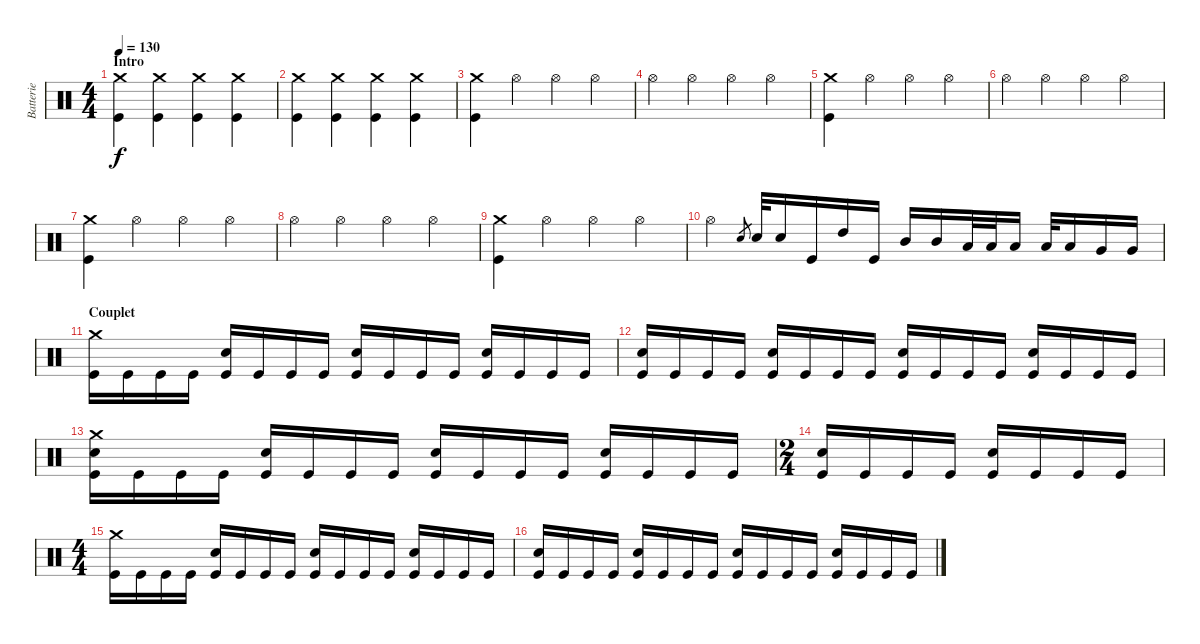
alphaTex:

\track ("Batterie" "Batterie") {instrument percussion}
\staff {score}
\articulation defaults
\ts (4 4)
\section ("" "Intro")
\tempo 130
\clef neutral
\ks c
("Crash medium (hit)" "Kick (hit)").4{dy f} ("Crash medium (hit)" "Kick (hit)").4 ("Crash medium (hit)" "Kick (hit)").4 ("Crash medium (hit)" "Kick (hit)").4 |
("Crash medium (hit)" "Kick (hit)").4 ("Crash medium (hit)" "Kick (hit)").4 ("Crash medium (hit)" "Kick (hit)").4 ("Crash medium (hit)" "Kick (hit)").4 |
("Crash medium (hit)" "Kick (hit)").4 "Hi-Hat (open)".4 "Hi-Hat (open)".4 "Hi-Hat (open)".4 |
"Hi-Hat (open)".4 "Hi-Hat (open)".4 "Hi-Hat (open)".4 "Hi-Hat (open)".4 |
("Crash medium (hit)" "Kick (hit)").4 "Hi-Hat (open)".4 "Hi-Hat (open)".4 "Hi-Hat (open)".4 |
"Hi-Hat (open)".4 "Hi-Hat (open)".4 "Hi-Hat (open)".4 "Hi-Hat (open)".4 |
("Crash medium (hit)" "Kick (hit)").4 "Hi-Hat (open)".4 "Hi-Hat (open)".4 "Hi-Hat (open)".4 |
"Hi-Hat (open)".4 "Hi-Hat (open)".4 "Hi-Hat (open)".4 "Hi-Hat (open)".4 |
("Crash medium (hit)" "Kick (hit)").4 "Hi-Hat (open)".4 "Hi-Hat (open)".4 "Hi-Hat (open)".4 |
"Hi-Hat (open)".4 "Electric Snare (hit)".8{gr} "Electric Snare (hit)".32 "Electric Snare (hit)".16 "Kick (hit)".16 "High Tom (hit)".16 "Kick (hit)".16 "Mid Tom (hit)".16 "Mid Tom (hit)".16 "Low Tom (hit)".32 "Low Tom (hit)".32 "Low Tom (hit)".16 "Low Tom (hit)".32 "Low Tom (hit)".16 "Very Low Tom (hit)".16 "Very Low Tom (hit)".16 |
\section ("" "Couplet")
("Crash medium (hit)" "Kick (hit)").16 "Kick (hit)".16 "Kick (hit)".16 "Kick (hit)".16 ("Electric Snare (hit)" "Kick (hit)").16 "Kick (hit)".16 "Kick (hit)".16 "Kick (hit)".16 ("Electric Snare (hit)" "Kick (hit)").16 "Kick (hit)".16 "Kick (hit)".16 "Kick (hit)".16 ("Electric Snare (hit)" "Kick (hit)").16 "Kick (hit)".16 "Kick (hit)".16 "Kick (hit)".16 |
("Electric Snare (hit)" "Kick (hit)").16 "Kick (hit)".16 "Kick (hit)".16 "Kick (hit)".16 ("Electric Snare (hit)" "Kick (hit)").16 "Kick (hit)".16 "Kick (hit)".16 "Kick (hit)".16 ("Electric Snare (hit)" "Kick (hit)").16 "Kick (hit)".16 "Kick (hit)".16 "Kick (hit)".16 ("Electric Snare (hit)" "Kick (hit)").16 "Kick (hit)".16 "Kick (hit)".16 "Kick (hit)".16 |
("Crash medium (hit)" "Electric Snare (hit)" "Kick (hit)").16 "Kick (hit)".16 "Kick (hit)".16 "Kick (hit)".16 ("Electric Snare (hit)" "Kick (hit)").16 "Kick (hit)".16 "Kick (hit)".16 "Kick (hit)".16 ("Electric Snare (hit)" "Kick (hit)").16 "Kick (hit)".16 "Kick (hit)".16 "Kick (hit)".16 ("Electric Snare (hit)" "Kick (hit)").16 "Kick (hit)".16 "Kick (hit)".16 "Kick (hit)".16 |
\ts (2 4)
("Electric Snare (hit)" "Kick (hit)").16 "Kick (hit)".16 "Kick (hit)".16 "Kick (hit)".16 ("Electric Snare (hit)" "Kick (hit)").16 "Kick (hit)".16 "Kick (hit)".16 "Kick (hit)".16 |
\ts (4 4)
("Crash medium (hit)" "Kick (hit)").16 "Kick (hit)".16 "Kick (hit)".16 "Kick (hit)".16 ("Electric Snare (hit)" "Kick (hit)").16 "Kick (hit)".16 "Kick (hit)".16 "Kick (hit)".16 ("Electric Snare (hit)" "Kick (hit)").16 "Kick (hit)".16 "Kick (hit)".16 "Kick (hit)".16 ("Electric Snare (hit)" "Kick (hit)").16 "Kick (hit)".16 "Kick (hit)".16 "Kick (hit)".16 |
("Electric Snare (hit)" "Kick (hit)").16 "Kick (hit)".16 "Kick (hit)".16 "Kick (hit)".16 ("Electric Snare (hit)" "Kick (hit)").16 "Kick (hit)".16 "Kick (hit)".16 "Kick (hit)".16 ("Electric Snare (hit)" "Kick (hit)").16 "Kick (hit)".16 "Kick (hit)".16 "Kick (hit)".16 ("Electric Snare (hit)" "Kick (hit)").16 "Kick (hit)".16 "Kick (hit)".16 "Kick (hit)".16
